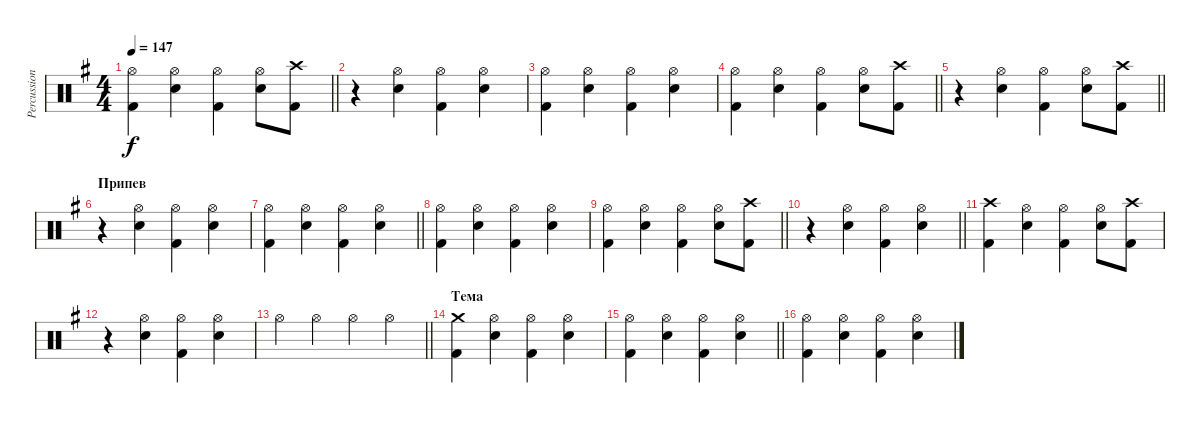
\track ("Percussion" "Percussion") {instrument percussion}
\staff {score}
\articulation defaults
\ts (4 4)
\tempo 147
\clef neutral
\barLineRight lightlight
\ks eminor
("Hi-Hat (open)" "Kick (hit) 2").4{dy f} ("Hi-Hat (open)" "Snare (hit) 2").4 ("Hi-Hat (open)" "Kick (hit) 2").4 ("Hi-Hat (open)" "Snare (hit) 2").8 ("Crash high (hit)" "Kick (hit) 2").8 |
r.4 ("Hi-Hat (open)" "Snare (hit) 2").4 ("Hi-Hat (open)" "Kick (hit) 2").4 ("Hi-Hat (open)" "Snare (hit) 2").4 |
("Hi-Hat (open)" "Kick (hit) 2").4 ("Hi-Hat (open)" "Snare (hit) 2").4 ("Hi-Hat (open)" "Kick (hit) 2").4 ("Hi-Hat (open)" "Snare (hit) 2").4 |
\barLineRight lightlight
("Hi-Hat (open)" "Kick (hit) 2").4 ("Hi-Hat (open)" "Snare (hit) 2").4 ("Hi-Hat (open)" "Kick (hit) 2").4 ("Hi-Hat (open)" "Snare (hit) 2").8 ("Crash high (hit)" "Kick (hit) 2").8 |
\barLineRight lightlight
r.4 ("Hi-Hat (open)" "Snare (hit) 2").4 ("Hi-Hat (open)" "Kick (hit) 2").4 ("Hi-Hat (open)" "Snare (hit) 2").8 ("Crash high (hit)" "Kick (hit) 2").8 |
\section ("" "Припев")
r.4 ("Hi-Hat (open)" "Snare (hit) 2").4 ("Hi-Hat (open)" "Kick (hit) 2").4 ("Hi-Hat (open)" "Snare (hit) 2").4 |
\barLineRight lightlight
("Hi-Hat (open)" "Kick (hit) 2").4 ("Hi-Hat (open)" "Snare (hit) 2").4 ("Hi-Hat (open)" "Kick (hit) 2").4 ("Hi-Hat (open)" "Snare (hit) 2").4 |
("Hi-Hat (open)" "Kick (hit) 2").4 ("Hi-Hat (open)" "Snare (hit) 2").4 ("Hi-Hat (open)" "Kick (hit) 2").4 ("Hi-Hat (open)" "Snare (hit) 2").4 |
\barLineRight lightlight
("Hi-Hat (open)" "Kick (hit) 2").4 ("Hi-Hat (open)" "Snare (hit) 2").4 ("Hi-Hat (open)" "Kick (hit) 2").4 ("Hi-Hat (open)" "Snare (hit) 2").8 ("Crash high (hit)" "Kick (hit) 2").8 |
\barLineRight lightlight
r.4 ("Hi-Hat (open)" "Snare (hit) 2").4 ("Hi-Hat (open)" "Kick (hit) 2").4 ("Hi-Hat (open)" "Snare (hit) 2").4 |
("Crash high (hit)" "Kick (hit) 2").4 ("Hi-Hat (open)" "Snare (hit) 2").4 ("Hi-Hat (open)" "Kick (hit) 2").4 ("Hi-Hat (open)" "Snare (hit) 2").8 ("Crash high (hit)" "Kick (hit) 2").8 |
r.4 ("Hi-Hat (open)" "Snare (hit) 2").4 ("Hi-Hat (open)" "Kick (hit) 2").4 ("Hi-Hat (open)" "Snare (hit) 2").4 |
\barLineRight lightlight "Hi-Hat (open)".4 "Hi-Hat (open)".4 "Hi-Hat (open)".4 "Hi-Hat (open)".4
|
\section ("" "Тема")
("Crash medium (hit)" "Kick (hit) 2").4 ("Hi-Hat (open)" "Snare (hit) 2").4 ("Hi-Hat (open)" "Kick (hit) 2").4 ("Hi-Hat (open)" "Snare (hit) 2").4 |
\barLineRight lightlight
("Hi-Hat (open)" "Kick (hit) 2").4 ("Hi-Hat (open)" "Snare (hit) 2").4 ("Hi-Hat (open)" "Kick (hit) 2").4 ("Hi-Hat (open)" "Snare (hit) 2").4 |
("Hi-Hat (open)" "Kick (hit) 2").4 ("Hi-Hat (open)" "Snare (hit) 2").4 ("Hi-Hat (open)" "Kick (hit) 2").4 ("Hi-Hat (open)" "Snare (hit) 2").4
